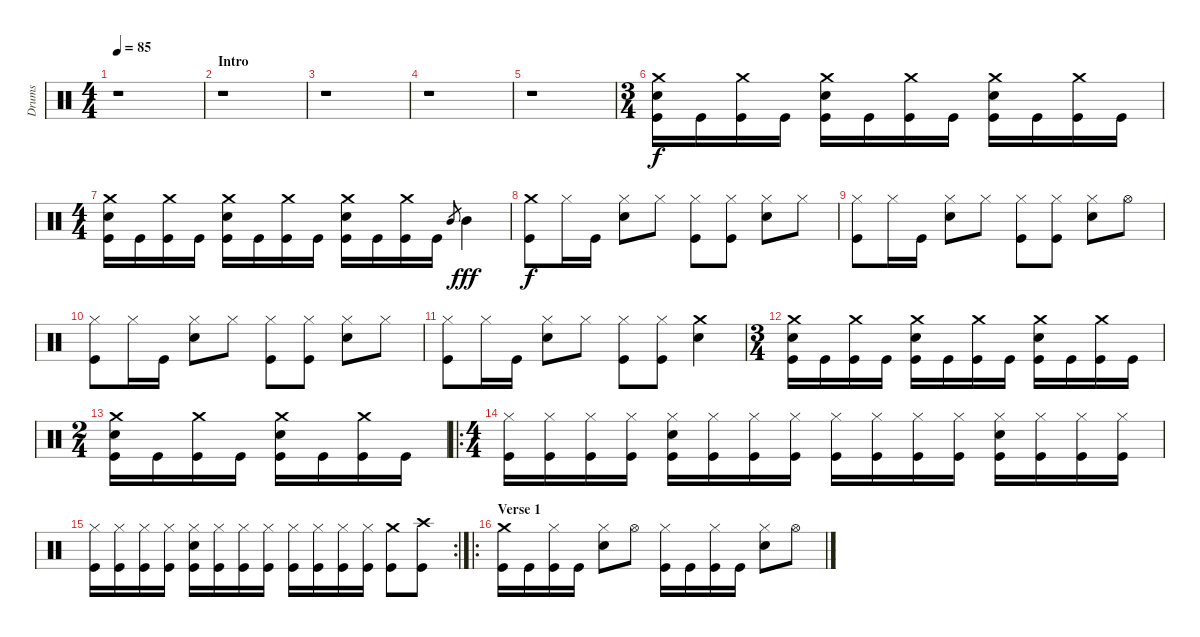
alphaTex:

\track ("Drums" "Drums") {instrument percussion}
\staff {score}
\articulation defaults
\ts (4 4)
\tempo 85
\clef neutral
\ks c
r.1{dy f} |
\section ("" "Intro")
r.1 |
r.1 |
r.1 |
r.1 |
\ts (3 4)
("Crash medium (hit)" "Snare (hit) 2" "Kick (hit)").16 "Kick (hit)".16 ("Crash medium (hit)" "Kick (hit)").16 "Kick (hit)".16 ("Crash medium (hit)" "Snare (hit) 2" "Kick (hit)").16 "Kick (hit)".16 ("Crash medium (hit)" "Kick (hit)").16 "Kick (hit)".16 ("Crash medium (hit)" "Snare (hit) 2" "Kick (hit)").16 "Kick (hit)".16 ("Crash medium (hit)" "Kick (hit)").16 "Kick (hit)".16 |
\ts (4 4)
("Crash medium (hit)" "Snare (hit) 2" "Kick (hit)").16 "Kick (hit)".16 ("Crash medium (hit)" "Kick (hit)").16 "Kick (hit)".16 ("Crash medium (hit)" "Snare (hit) 2" "Kick (hit)").16 "Kick (hit)".16 ("Crash medium (hit)" "Kick (hit)").16 "Kick (hit)".16 ("Crash medium (hit)" "Snare (hit) 2" "Kick (hit)").16 "Kick (hit)".16 ("Crash medium (hit)" "Kick (hit)").16 "Kick (hit)".16 "Mid Tom (hit)".8{gr} "Mid Tom (hit)".4{dy fff} |
("Crash medium (hit)" "Kick (hit)").8{dy f} "Hi-Hat (closed)".16 "Kick (hit)".16 ("Hi-Hat (closed)" "Snare (hit) 2").8 "Hi-Hat (closed)".8 ("Hi-Hat (closed)" "Kick (hit)").8 ("Hi-Hat (closed)" "Kick (hit)").8 ("Hi-Hat (closed)" "Snare (hit) 2").8 "Hi-Hat (closed)".8 |
("Hi-Hat (closed)" "Kick (hit)").8 "Hi-Hat (closed)".16 "Kick (hit)".16 ("Hi-Hat (closed)" "Snare (hit) 2").8 "Hi-Hat (closed)".8 ("Hi-Hat (closed)" "Kick (hit)").8 ("Hi-Hat (closed)" "Kick (hit)").8 ("Hi-Hat (closed)" "Snare (hit) 2").8 "Hi-Hat (open)".8 |
("Hi-Hat (closed)" "Kick (hit)").8 "Hi-Hat (closed)".16 "Kick (hit)".16 ("Hi-Hat (closed)" "Snare (hit) 2").8 "Hi-Hat (closed)".8 ("Hi-Hat (closed)" "Kick (hit)").8 ("Hi-Hat (closed)" "Kick (hit)").8 ("Hi-Hat (closed)" "Snare (hit) 2").8 "Hi-Hat (closed)".8 |
("Hi-Hat (closed)" "Kick (hit)").8 "Hi-Hat (closed)".16 "Kick (hit)".16 ("Hi-Hat (closed)" "Snare (hit) 2").8 "Hi-Hat (closed)".8 ("Hi-Hat (closed)" "Kick (hit)").8 ("Hi-Hat (closed)" "Kick (hit)").8 ("Crash medium (hit)" "Snare (hit) 2").4 |
\ts (3 4)
("Crash medium (hit)" "Snare (hit) 2" "Kick (hit)").16 "Kick (hit)".16 ("Crash medium (hit)" "Kick (hit)").16 "Kick (hit)".16 ("Crash medium (hit)" "Snare (hit) 2" "Kick (hit)").16 "Kick (hit)".16 ("Crash medium (hit)" "Kick (hit)").16 "Kick (hit)".16 ("Crash medium (hit)" "Snare (hit) 2" "Kick (hit)").16 "Kick (hit)".16 ("Crash medium (hit)" "Kick (hit)").16 "Kick (hit)".16 |
\ts (2 4)
("Crash medium (hit)" "Snare (hit) 2" "Kick (hit)").16 "Kick (hit)".16 ("Crash medium (hit)" "Kick (hit)").16 "Kick (hit)".16 ("Crash medium (hit)" "Snare (hit) 2" "Kick (hit)").16 "Kick (hit)".16 ("Crash medium (hit)" "Kick (hit)").16 "Kick (hit)".16 |
\ro
\ts (4 4)
("Hi-Hat (closed)" "Kick (hit)").16 ("Hi-Hat (closed)" "Kick (hit)").16 ("Hi-Hat (closed)" "Kick (hit)").16 ("Hi-Hat (closed)" "Kick (hit)").16 ("Hi-Hat (closed)" "Snare (hit) 2" "Kick (hit)").16 ("Hi-Hat (closed)" "Kick (hit)").16 ("Hi-Hat (closed)" "Kick (hit)").16 ("Hi-Hat (closed)" "Kick (hit)").16 ("Hi-Hat (closed)" "Kick (hit)").16 ("Hi-Hat (closed)" "Kick (hit)").16 ("Hi-Hat (closed)" "Kick (hit)").16 ("Hi-Hat (closed)" "Kick (hit)").16 ("Hi-Hat (closed)" "Snare (hit) 2" "Kick (hit)").16 ("Hi-Hat (closed)" "Kick (hit)").16 ("Hi-Hat (closed)" "Kick (hit)").16 ("Hi-Hat (closed)" "Kick (hit)").16 |
\rc 2
("Hi-Hat (closed)" "Kick (hit)").16 ("Hi-Hat (closed)" "Kick (hit)").16 ("Hi-Hat (closed)" "Kick (hit)").16 ("Hi-Hat (closed)" "Kick (hit)").16 ("Hi-Hat (closed)" "Snare (hit) 2" "Kick (hit)").16 ("Hi-Hat (closed)" "Kick (hit)").16 ("Hi-Hat (closed)" "Kick (hit)").16 ("Hi-Hat (closed)" "Kick (hit)").16 ("Hi-Hat (closed)" "Kick (hit)").16 ("Hi-Hat (closed)" "Kick (hit)").16 ("Hi-Hat (closed)" "Kick (hit)").16 ("Hi-Hat (closed)" "Kick (hit)").16 ("Crash medium (hit)" "Kick (hit)").8 ("Crash high (hit)" "Kick (hit)").8 |
\ro
\section ("" "Verse 1")
("Crash medium (hit)" "Kick (hit)").16 "Kick (hit)".16 ("Hi-Hat (closed)" "Kick (hit)").16 "Kick (hit)".16 ("Hi-Hat (closed)" "Snare (hit) 2").8 "Hi-Hat (open)".8 ("Hi-Hat (closed)" "Kick (hit)").16 "Kick (hit)".16 ("Hi-Hat (closed)" "Kick (hit)").16 "Kick (hit)".16 ("Hi-Hat (closed)" "Snare (hit) 2").8 "Hi-Hat (open)".8
